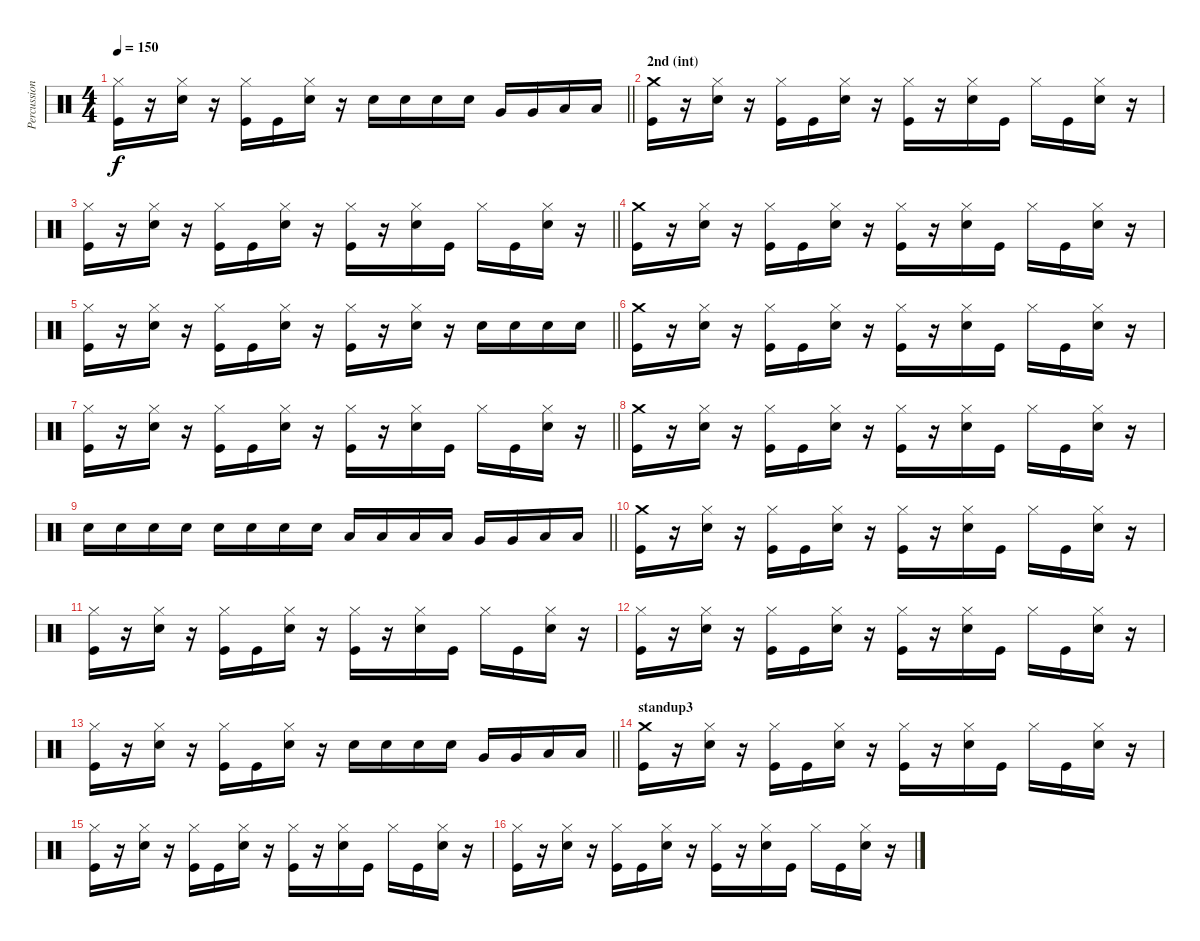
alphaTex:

\track ("Percussion" "Percussion") {instrument percussion}
\staff {score}
\articulation defaults
\ts (4 4)
\tempo 150
\clef neutral
\barLineRight lightlight
\ks c
("Hi-Hat (closed)" "Kick (hit)").16{dy f} r.16 ("Hi-Hat (closed)" "Snare (hit) 2").16 r.16 ("Hi-Hat (closed)" "Kick (hit)").16 "Kick (hit)".16 ("Hi-Hat (closed)" "Snare (hit) 2").16 r.16 "Snare (hit) 2".16 "Snare (hit) 2".16 "Snare (hit) 2".16 "Snare (hit) 2".16 "Very Low Tom (hit)".16 "Very Low Tom (hit)".16 "Low Floor Tom (hit)".16 "Low Floor Tom (hit)".16 |
\section ("" "2nd (int)")
("Crash medium (hit)" "Kick (hit)").16 r.16 ("Hi-Hat (closed)" "Snare (hit) 2").16 r.16 ("Hi-Hat (closed)" "Kick (hit)").16 "Kick (hit)".16 ("Hi-Hat (closed)" "Snare (hit) 2").16 r.16 ("Hi-Hat (closed)" "Kick (hit)").16 r.16 ("Hi-Hat (closed)" "Snare (hit) 2").16 "Kick (hit)".16 "Hi-Hat (closed)".16 "Kick (hit)".16 ("Hi-Hat (closed)" "Snare (hit) 2").16 r.16 |
\barLineRight lightlight
("Hi-Hat (closed)" "Kick (hit)").16 r.16 ("Hi-Hat (closed)" "Snare (hit) 2").16 r.16 ("Hi-Hat (closed)" "Kick (hit)").16 "Kick (hit)".16 ("Hi-Hat (closed)" "Snare (hit) 2").16 r.16 ("Hi-Hat (closed)" "Kick (hit)").16 r.16 ("Hi-Hat (closed)" "Snare (hit) 2").16 "Kick (hit)".16 "Hi-Hat (closed)".16 "Kick (hit)".16 ("Hi-Hat (closed)" "Snare (hit) 2").16 r.16 |
("Crash medium (hit)" "Kick (hit)").16 r.16 ("Hi-Hat (closed)" "Snare (hit) 2").16 r.16 ("Hi-Hat (closed)" "Kick (hit)").16 "Kick (hit)".16 ("Hi-Hat (closed)" "Snare (hit) 2").16 r.16 ("Hi-Hat (closed)" "Kick (hit)").16 r.16 ("Hi-Hat (closed)" "Snare (hit) 2").16 "Kick (hit)".16 "Hi-Hat (closed)".16 "Kick (hit)".16 ("Hi-Hat (closed)" "Snare (hit) 2").16 r.16 |
\barLineRight lightlight
("Hi-Hat (closed)" "Kick (hit)").16 r.16 ("Hi-Hat (closed)" "Snare (hit) 2").16 r.16 ("Hi-Hat (closed)" "Kick (hit)").16 "Kick (hit)".16 ("Hi-Hat (closed)" "Snare (hit) 2").16 r.16 ("Hi-Hat (closed)" "Kick (hit)").16 r.16 ("Hi-Hat (closed)" "Snare (hit) 2").16 r.16 "Snare (hit) 2".16 "Snare (hit) 2".16 "Snare (hit) 2".16 "Snare (hit) 2".16 |
("Crash medium (hit)" "Kick (hit)").16 r.16 ("Hi-Hat (closed)" "Snare (hit) 2").16 r.16 ("Hi-Hat (closed)" "Kick (hit)").16 "Kick (hit)".16 ("Hi-Hat (closed)" "Snare (hit) 2").16 r.16 ("Hi-Hat (closed)" "Kick (hit)").16 r.16 ("Hi-Hat (closed)" "Snare (hit) 2").16 "Kick (hit)".16 "Hi-Hat (closed)".16 "Kick (hit)".16 ("Hi-Hat (closed)" "Snare (hit) 2").16 r.16 |
\barLineRight lightlight
("Hi-Hat (closed)" "Kick (hit)").16 r.16 ("Hi-Hat (closed)" "Snare (hit) 2").16 r.16 ("Hi-Hat (closed)" "Kick (hit)").16 "Kick (hit)".16 ("Hi-Hat (closed)" "Snare (hit) 2").16 r.16 ("Hi-Hat (closed)" "Kick (hit)").16 r.16 ("Hi-Hat (closed)" "Snare (hit) 2").16 "Kick (hit)".16 "Hi-Hat (closed)".16 "Kick (hit)".16 ("Hi-Hat (closed)" "Snare (hit) 2").16 r.16 |
("Crash medium (hit)" "Kick (hit)").16 r.16 ("Hi-Hat (closed)" "Snare (hit) 2").16 r.16 ("Hi-Hat (closed)" "Kick (hit)").16 "Kick (hit)".16 ("Hi-Hat (closed)" "Snare (hit) 2").16 r.16 ("Hi-Hat (closed)" "Kick (hit)").16 r.16 ("Hi-Hat (closed)" "Snare (hit) 2").16 "Kick (hit)".16 "Hi-Hat (closed)".16 "Kick (hit)".16 ("Hi-Hat (closed)" "Snare (hit) 2").16 r.16 |
\barLineRight lightlight "Snare (hit) 2".16 "Snare (hit) 2".16 "Snare (hit) 2".16 "Snare (hit) 2".16 "Snare (hit) 2".16 "Snare (hit) 2".16 "Snare (hit) 2".16 "Snare (hit) 2".16 "Low Tom (hit)".16 "Low Tom (hit)".16 "Low Tom (hit)".16 "Low Tom (hit)".16 "Very Low Tom (hit)".16 "Very Low Tom (hit)".16 "Low Floor Tom (hit)".16 "Low Floor Tom (hit)".16
|
("Crash medium (hit)" "Kick (hit)").16 r.16 ("Hi-Hat (closed)" "Snare (hit) 2").16 r.16 ("Hi-Hat (closed)" "Kick (hit)").16 "Kick (hit)".16 ("Hi-Hat (closed)" "Snare (hit) 2").16 r.16 ("Hi-Hat (closed)" "Kick (hit)").16 r.16 ("Hi-Hat (closed)" "Snare (hit) 2").16 "Kick (hit)".16 "Hi-Hat (closed)".16 "Kick (hit)".16 ("Hi-Hat (closed)" "Snare (hit) 2").16 r.16 |
("Hi-Hat (closed)" "Kick (hit)").16 r.16 ("Hi-Hat (closed)" "Snare (hit) 2").16 r.16 ("Hi-Hat (closed)" "Kick (hit)").16 "Kick (hit)".16 ("Hi-Hat (closed)" "Snare (hit) 2").16 r.16 ("Hi-Hat (closed)" "Kick (hit)").16 r.16 ("Hi-Hat (closed)" "Snare (hit) 2").16 "Kick (hit)".16 "Hi-Hat (closed)".16 "Kick (hit)".16 ("Hi-Hat (closed)" "Snare (hit) 2").16 r.16 |
("Hi-Hat (closed)" "Kick (hit)").16 r.16 ("Hi-Hat (closed)" "Snare (hit) 2").16 r.16 ("Hi-Hat (closed)" "Kick (hit)").16 "Kick (hit)".16 ("Hi-Hat (closed)" "Snare (hit) 2").16 r.16 ("Hi-Hat (closed)" "Kick (hit)").16 r.16 ("Hi-Hat (closed)" "Snare (hit) 2").16 "Kick (hit)".16 "Hi-Hat (closed)".16 "Kick (hit)".16 ("Hi-Hat (closed)" "Snare (hit) 2").16 r.16 |
\barLineRight lightlight
("Hi-Hat (closed)" "Kick (hit)").16 r.16 ("Hi-Hat (closed)" "Snare (hit) 2").16 r.16 ("Hi-Hat (closed)" "Kick (hit)").16 "Kick (hit)".16 ("Hi-Hat (closed)" "Snare (hit) 2").16 r.16 "Snare (hit) 2".16 "Snare (hit) 2".16 "Snare (hit) 2".16 "Snare (hit) 2".16 "Very Low Tom (hit)".16 "Very Low Tom (hit)".16 "Low Floor Tom (hit)".16 "Low Floor Tom (hit)".16 |
\section ("" "standup3")
("Crash medium (hit)" "Kick (hit)").16 r.16 ("Hi-Hat (closed)" "Snare (hit) 2").16 r.16 ("Hi-Hat (closed)" "Kick (hit)").16 "Kick (hit)".16 ("Hi-Hat (closed)" "Snare (hit) 2").16 r.16 ("Hi-Hat (closed)" "Kick (hit)").16 r.16 ("Hi-Hat (closed)" "Snare (hit) 2").16 "Kick (hit)".16 "Hi-Hat (closed)".16 "Kick (hit)".16 ("Hi-Hat (closed)" "Snare (hit) 2").16 r.16 |
("Hi-Hat (closed)" "Kick (hit)").16 r.16 ("Hi-Hat (closed)" "Snare (hit) 2").16 r.16 ("Hi-Hat (closed)" "Kick (hit)").16 "Kick (hit)".16 ("Hi-Hat (closed)" "Snare (hit) 2").16 r.16 ("Hi-Hat (closed)" "Kick (hit)").16 r.16 ("Hi-Hat (closed)" "Snare (hit) 2").16 "Kick (hit)".16 "Hi-Hat (closed)".16 "Kick (hit)".16 ("Hi-Hat (closed)" "Snare (hit) 2").16 r.16 |
("Hi-Hat (closed)" "Kick (hit)").16 r.16 ("Hi-Hat (closed)" "Snare (hit) 2").16 r.16 ("Hi-Hat (closed)" "Kick (hit)").16 "Kick (hit)".16 ("Hi-Hat (closed)" "Snare (hit) 2").16 r.16 ("Hi-Hat (closed)" "Kick (hit)").16 r.16 ("Hi-Hat (closed)" "Snare (hit) 2").16 "Kick (hit)".16 "Hi-Hat (closed)".16 "Kick (hit)".16 ("Hi-Hat (closed)" "Snare (hit) 2").16 r.16
